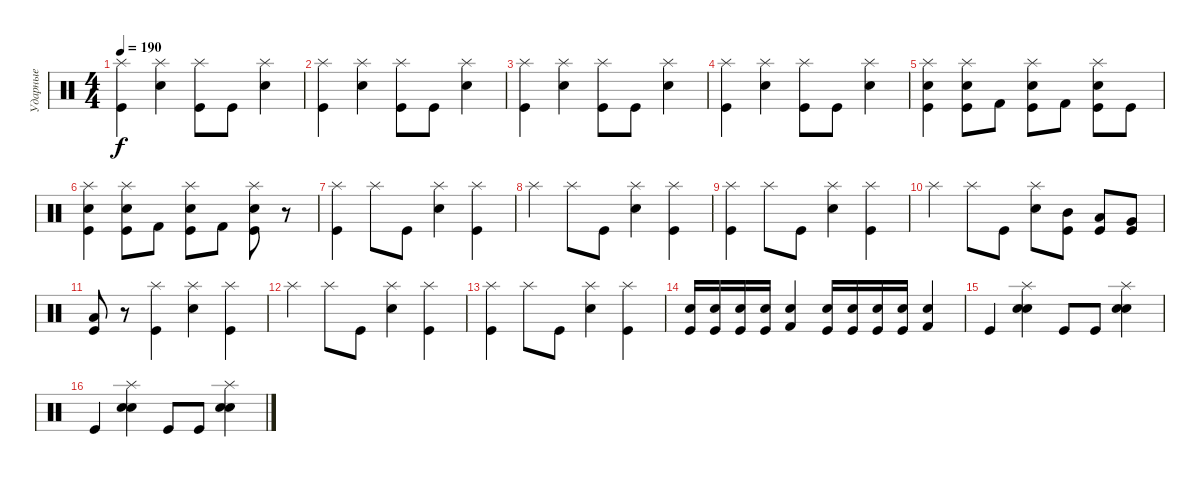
\track ("Ударные" "Ударные") {instrument percussion}
\staff {score}
\articulation defaults
\ts (4 4)
\tempo 190
\clef neutral
\ks c
("Splash (hit)" "Kick (hit)").4{dy f} ("Splash (hit)" "Electric Snare (hit)").4 ("Splash (hit)" "Kick (hit)").8 "Kick (hit)".8 ("Splash (hit)" "Electric Snare (hit)").4 |
("Splash (hit)" "Kick (hit)").4 ("Splash (hit)" "Electric Snare (hit)").4 ("Splash (hit)" "Kick (hit)").8 "Kick (hit)".8 ("Splash (hit)" "Electric Snare (hit)").4 |
("Splash (hit)" "Kick (hit)").4 ("Splash (hit)" "Electric Snare (hit)").4 ("Splash (hit)" "Kick (hit)").8 "Kick (hit)".8 ("Splash (hit)" "Electric Snare (hit)").4 |
("Splash (hit)" "Kick (hit)").4 ("Splash (hit)" "Electric Snare (hit)").4 ("Splash (hit)" "Kick (hit)").8 "Kick (hit)".8 ("Splash (hit)" "Electric Snare (hit)").4 |
("Splash (hit)" "Electric Snare (hit)" "Kick (hit)").4 ("Splash (hit)" "Electric Snare (hit)" "Kick (hit)").8 "Kick (hit) 2".8 ("Splash (hit)" "Electric Snare (hit)" "Kick (hit)").8 "Kick (hit) 2".8 ("Splash (hit)" "Electric Snare (hit)" "Kick (hit)").8 "Kick (hit)".8 |
("Splash (hit)" "Electric Snare (hit)" "Kick (hit)").4 ("Splash (hit)" "Electric Snare (hit)" "Kick (hit)").8 "Kick (hit) 2".8 ("Splash (hit)" "Electric Snare (hit)" "Kick (hit)").8 "Kick (hit) 2".8 ("Splash (hit)" "Electric Snare (hit)" "Kick (hit)").8 r.8 |
("Splash (hit)" "Kick (hit)").4 "Splash (hit)".8 "Kick (hit)".8 ("Splash (hit)" "Electric Snare (hit)").4 ("Splash (hit)" "Kick (hit)").4 |
"Splash (hit)".4 "Splash (hit)".8 "Kick (hit)".8 ("Splash (hit)" "Electric Snare (hit)").4 ("Splash (hit)" "Kick (hit)").4 |
("Splash (hit)" "Kick (hit)").4 "Splash (hit)".8 "Kick (hit)".8 ("Splash (hit)" "Electric Snare (hit)").4 ("Splash (hit)" "Kick (hit)").4 |
"Splash (hit)".4 "Splash (hit)".8 "Kick (hit)".8 ("Splash (hit)" "Electric Snare (hit)").8 ("Mid Tom (hit)" "Kick (hit)").8 ("Low Tom (hit)" "Kick (hit)").8 ("Very Low Tom (hit)" "Kick (hit)").8 |
("Low Floor Tom (hit)" "Kick (hit)").8 r.8 ("Splash (hit)" "Kick (hit)").4 ("Splash (hit)" "Electric Snare (hit)").4 ("Splash (hit)" "Kick (hit)").4 |
"Splash (hit)".4 "Splash (hit)".8 "Kick (hit)".8 ("Splash (hit)" "Electric Snare (hit)").4 ("Splash (hit)" "Kick (hit)").4 |
("Splash (hit)" "Kick (hit)").4 "Splash (hit)".8 "Kick (hit)".8 ("Splash (hit)" "Electric Snare (hit)").4 ("Splash (hit)" "Kick (hit)").4 |
("Electric Snare (hit)" "Kick (hit)").16 ("Electric Snare (hit)" "Kick (hit)").16 ("Electric Snare (hit)" "Kick (hit)").16 ("Electric Snare (hit)" "Kick (hit)").16 ("Electric Snare (hit)" "Kick (hit) 2").4 ("Electric Snare (hit)" "Kick (hit)").16 ("Electric Snare (hit)" "Kick (hit)").16 ("Electric Snare (hit)" "Kick (hit)").16 ("Electric Snare (hit)" "Kick (hit)").16 ("Electric Snare (hit)" "Kick (hit) 2").4 |
"Kick (hit)".4 ("Splash (hit)" "Snare (hit) 2" "Electric Snare (hit)").4 "Kick (hit)".8 "Kick (hit)".8 ("Splash (hit)" "Snare (hit) 2" "Electric Snare (hit)").4 |
"Kick (hit)".4 ("Splash (hit)" "Snare (hit) 2" "Electric Snare (hit)").4 "Kick (hit)".8 "Kick (hit)".8 ("Splash (hit)" "Snare (hit) 2" "Electric Snare (hit)").4
